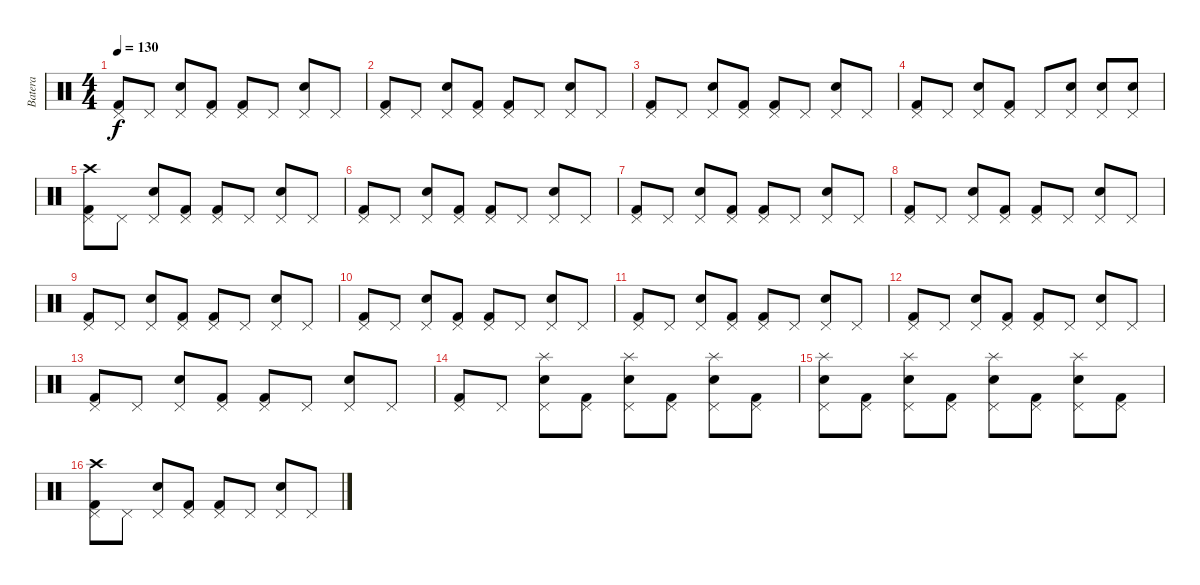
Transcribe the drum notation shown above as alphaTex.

\track ("Batera" "Batera") {instrument percussion}
\staff {score}
\articulation defaults
\ts (4 4)
\tempo 130
\clef neutral
\ks c
("Pedal Hi-Hat (hit)" "Kick (hit) 2").8{dy f} "Pedal Hi-Hat (hit)".8 ("Pedal Hi-Hat (hit)" "Snare (hit) 2").8 ("Pedal Hi-Hat (hit)" "Kick (hit) 2").8 ("Pedal Hi-Hat (hit)" "Kick (hit) 2").8 "Pedal Hi-Hat (hit)".8 ("Pedal Hi-Hat (hit)" "Snare (hit) 2").8 "Pedal Hi-Hat (hit)".8 |
("Pedal Hi-Hat (hit)" "Kick (hit) 2").8 "Pedal Hi-Hat (hit)".8 ("Pedal Hi-Hat (hit)" "Snare (hit) 2").8 ("Pedal Hi-Hat (hit)" "Kick (hit) 2").8 ("Pedal Hi-Hat (hit)" "Kick (hit) 2").8 "Pedal Hi-Hat (hit)".8 ("Pedal Hi-Hat (hit)" "Snare (hit) 2").8 "Pedal Hi-Hat (hit)".8 |
("Pedal Hi-Hat (hit)" "Kick (hit) 2").8 "Pedal Hi-Hat (hit)".8 ("Pedal Hi-Hat (hit)" "Snare (hit) 2").8 ("Pedal Hi-Hat (hit)" "Kick (hit) 2").8 ("Pedal Hi-Hat (hit)" "Kick (hit) 2").8 "Pedal Hi-Hat (hit)".8 ("Pedal Hi-Hat (hit)" "Snare (hit) 2").8 "Pedal Hi-Hat (hit)".8 |
("Pedal Hi-Hat (hit)" "Kick (hit) 2").8 "Pedal Hi-Hat (hit)".8 ("Pedal Hi-Hat (hit)" "Snare (hit) 2").8 ("Pedal Hi-Hat (hit)" "Kick (hit) 2").8 "Pedal Hi-Hat (hit)".8 ("Pedal Hi-Hat (hit)" "Electric Snare (hit)").8 ("Pedal Hi-Hat (hit)" "Electric Snare (hit)").8 ("Pedal Hi-Hat (hit)" "Electric Snare (hit)").8 |
("Pedal Hi-Hat (hit)" "Crash high (hit)" "Kick (hit) 2").8 "Pedal Hi-Hat (hit)".8 ("Pedal Hi-Hat (hit)" "Snare (hit) 2").8 ("Pedal Hi-Hat (hit)" "Kick (hit) 2").8 ("Pedal Hi-Hat (hit)" "Kick (hit) 2").8 "Pedal Hi-Hat (hit)".8 ("Pedal Hi-Hat (hit)" "Snare (hit) 2").8 "Pedal Hi-Hat (hit)".8 |
("Pedal Hi-Hat (hit)" "Kick (hit) 2").8 "Pedal Hi-Hat (hit)".8 ("Pedal Hi-Hat (hit)" "Snare (hit) 2").8 ("Pedal Hi-Hat (hit)" "Kick (hit) 2").8 ("Pedal Hi-Hat (hit)" "Kick (hit) 2").8 "Pedal Hi-Hat (hit)".8 ("Pedal Hi-Hat (hit)" "Snare (hit) 2").8 "Pedal Hi-Hat (hit)".8 |
("Pedal Hi-Hat (hit)" "Kick (hit) 2").8 "Pedal Hi-Hat (hit)".8 ("Pedal Hi-Hat (hit)" "Snare (hit) 2").8 ("Pedal Hi-Hat (hit)" "Kick (hit) 2").8 ("Pedal Hi-Hat (hit)" "Kick (hit) 2").8 "Pedal Hi-Hat (hit)".8 ("Pedal Hi-Hat (hit)" "Snare (hit) 2").8 "Pedal Hi-Hat (hit)".8 |
("Pedal Hi-Hat (hit)" "Kick (hit) 2").8 "Pedal Hi-Hat (hit)".8 ("Pedal Hi-Hat (hit)" "Snare (hit) 2").8 ("Pedal Hi-Hat (hit)" "Kick (hit) 2").8 ("Pedal Hi-Hat (hit)" "Kick (hit) 2").8 "Pedal Hi-Hat (hit)".8 ("Pedal Hi-Hat (hit)" "Snare (hit) 2").8 "Pedal Hi-Hat (hit)".8 |
("Pedal Hi-Hat (hit)" "Kick (hit) 2").8 "Pedal Hi-Hat (hit)".8 ("Pedal Hi-Hat (hit)" "Snare (hit) 2").8 ("Pedal Hi-Hat (hit)" "Kick (hit) 2").8 ("Pedal Hi-Hat (hit)" "Kick (hit) 2").8 "Pedal Hi-Hat (hit)".8 ("Pedal Hi-Hat (hit)" "Snare (hit) 2").8 "Pedal Hi-Hat (hit)".8 |
("Pedal Hi-Hat (hit)" "Kick (hit) 2").8 "Pedal Hi-Hat (hit)".8 ("Pedal Hi-Hat (hit)" "Snare (hit) 2").8 ("Pedal Hi-Hat (hit)" "Kick (hit) 2").8 ("Pedal Hi-Hat (hit)" "Kick (hit) 2").8 "Pedal Hi-Hat (hit)".8 ("Pedal Hi-Hat (hit)" "Snare (hit) 2").8 "Pedal Hi-Hat (hit)".8 |
("Pedal Hi-Hat (hit)" "Kick (hit) 2").8 "Pedal Hi-Hat (hit)".8 ("Pedal Hi-Hat (hit)" "Snare (hit) 2").8 ("Pedal Hi-Hat (hit)" "Kick (hit) 2").8 ("Pedal Hi-Hat (hit)" "Kick (hit) 2").8 "Pedal Hi-Hat (hit)".8 ("Pedal Hi-Hat (hit)" "Snare (hit) 2").8 "Pedal Hi-Hat (hit)".8 |
("Pedal Hi-Hat (hit)" "Kick (hit) 2").8 "Pedal Hi-Hat (hit)".8 ("Pedal Hi-Hat (hit)" "Snare (hit) 2").8 ("Pedal Hi-Hat (hit)" "Kick (hit) 2").8 ("Pedal Hi-Hat (hit)" "Kick (hit) 2").8 "Pedal Hi-Hat (hit)".8 ("Pedal Hi-Hat (hit)" "Snare (hit) 2").8 "Pedal Hi-Hat (hit)".8 |
("Pedal Hi-Hat (hit)" "Kick (hit) 2").8 "Pedal Hi-Hat (hit)".8 ("Pedal Hi-Hat (hit)" "Snare (hit) 2").8 ("Pedal Hi-Hat (hit)" "Kick (hit) 2").8 ("Pedal Hi-Hat (hit)" "Kick (hit) 2").8 "Pedal Hi-Hat (hit)".8 ("Pedal Hi-Hat (hit)" "Snare (hit) 2").8 "Pedal Hi-Hat (hit)".8 |
("Pedal Hi-Hat (hit)" "Kick (hit) 2").8 "Pedal Hi-Hat (hit)".8 ("Pedal Hi-Hat (hit)" "Splash (hit)" "Snare (hit) 2").8 ("Pedal Hi-Hat (hit)" "Kick (hit) 2").8 ("Pedal Hi-Hat (hit)" "Splash (hit)" "Snare (hit) 2").8 ("Pedal Hi-Hat (hit)" "Kick (hit) 2").8 ("Pedal Hi-Hat (hit)" "Splash (hit)" "Snare (hit) 2").8 ("Pedal Hi-Hat (hit)" "Kick (hit) 2").8 |
("Pedal Hi-Hat (hit)" "Splash (hit)" "Snare (hit) 2").8 ("Pedal Hi-Hat (hit)" "Kick (hit) 2").8 ("Pedal Hi-Hat (hit)" "Splash (hit)" "Snare (hit) 2").8 ("Pedal Hi-Hat (hit)" "Kick (hit) 2").8 ("Pedal Hi-Hat (hit)" "Splash (hit)" "Snare (hit) 2").8 ("Pedal Hi-Hat (hit)" "Kick (hit) 2").8 ("Pedal Hi-Hat (hit)" "Splash (hit)" "Snare (hit) 2").8 ("Pedal Hi-Hat (hit)" "Kick (hit) 2").8 |
("Pedal Hi-Hat (hit)" "Crash high (hit)" "Kick (hit) 2").8 "Pedal Hi-Hat (hit)".8 ("Pedal Hi-Hat (hit)" "Snare (hit) 2").8 ("Pedal Hi-Hat (hit)" "Kick (hit) 2").8 ("Pedal Hi-Hat (hit)" "Kick (hit) 2").8 "Pedal Hi-Hat (hit)".8 ("Pedal Hi-Hat (hit)" "Snare (hit) 2").8 "Pedal Hi-Hat (hit)".8
